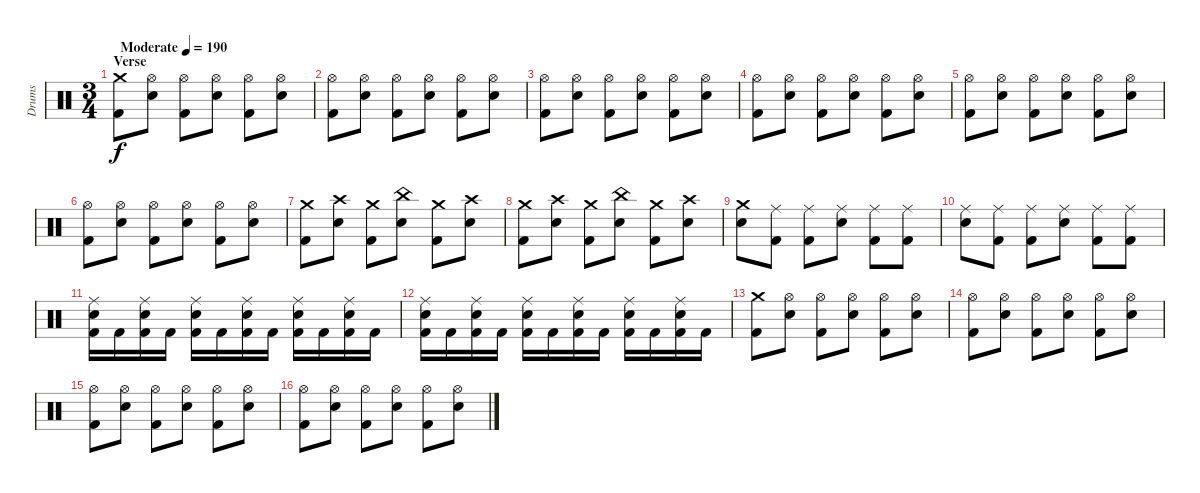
\track ("Drums" "Drums") {instrument percussion}
\staff {score}
\articulation defaults
\ts (3 4)
\section ("" "Verse")
\tempo (190 "Moderate")
\clef neutral
\ks c
("Crash medium (hit)" "Kick (hit) 2").8{dy f} ("Hi-Hat (open)" "Snare (hit) 2").8 ("Hi-Hat (open)" "Kick (hit) 2").8 ("Hi-Hat (open)" "Snare (hit) 2").8 ("Hi-Hat (open)" "Kick (hit) 2").8 ("Hi-Hat (open)" "Snare (hit) 2").8 |
("Hi-Hat (open)" "Kick (hit) 2").8 ("Hi-Hat (open)" "Snare (hit) 2").8 ("Hi-Hat (open)" "Kick (hit) 2").8 ("Hi-Hat (open)" "Snare (hit) 2").8 ("Hi-Hat (open)" "Kick (hit) 2").8 ("Hi-Hat (open)" "Snare (hit) 2").8 |
("Hi-Hat (open)" "Kick (hit) 2").8 ("Hi-Hat (open)" "Snare (hit) 2").8 ("Hi-Hat (open)" "Kick (hit) 2").8 ("Hi-Hat (open)" "Snare (hit) 2").8 ("Hi-Hat (open)" "Kick (hit) 2").8 ("Hi-Hat (open)" "Snare (hit) 2").8 |
("Hi-Hat (open)" "Kick (hit) 2").8 ("Hi-Hat (open)" "Snare (hit) 2").8 ("Hi-Hat (open)" "Kick (hit) 2").8 ("Hi-Hat (open)" "Snare (hit) 2").8 ("Hi-Hat (open)" "Kick (hit) 2").8 ("Hi-Hat (open)" "Snare (hit) 2").8 |
("Hi-Hat (open)" "Kick (hit) 2").8 ("Hi-Hat (open)" "Snare (hit) 2").8 ("Hi-Hat (open)" "Kick (hit) 2").8 ("Hi-Hat (open)" "Snare (hit) 2").8 ("Hi-Hat (open)" "Kick (hit) 2").8 ("Hi-Hat (open)" "Snare (hit) 2").8 |
("Hi-Hat (open)" "Kick (hit) 2").8 ("Hi-Hat (open)" "Snare (hit) 2").8 ("Hi-Hat (open)" "Kick (hit) 2").8 ("Hi-Hat (open)" "Snare (hit) 2").8 ("Hi-Hat (open)" "Kick (hit) 2").8 ("Hi-Hat (open)" "Snare (hit) 2").8 |
("Crash medium (hit)" "Kick (hit) 2").8 ("Crash high (hit)" "Snare (hit) 2").8 ("Crash medium (hit)" "Kick (hit) 2").8 ("China (hit)" "Snare (hit) 2").8 ("Crash medium (hit)" "Kick (hit) 2").8 ("Crash high (hit)" "Snare (hit) 2").8 |
("Crash medium (hit)" "Kick (hit) 2").8 ("Crash high (hit)" "Snare (hit) 2").8 ("Crash medium (hit)" "Kick (hit) 2").8 ("China (hit)" "Snare (hit) 2").8 ("Crash medium (hit)" "Kick (hit) 2").8 ("Crash high (hit)" "Snare (hit) 2").8 |
("Crash medium (hit)" "Snare (hit) 2").8 ("Ride (middle)" "Kick (hit) 2").8 ("Ride (middle)" "Kick (hit) 2").8 ("Ride (middle)" "Snare (hit) 2").8 ("Ride (middle)" "Kick (hit) 2").8 ("Ride (middle)" "Kick (hit) 2").8 |
("Ride (middle)" "Snare (hit) 2").8 ("Ride (middle)" "Kick (hit) 2").8 ("Ride (middle)" "Kick (hit) 2").8 ("Ride (middle)" "Snare (hit) 2").8 ("Ride (middle)" "Kick (hit) 2").8 ("Ride (middle)" "Kick (hit) 2").8 |
("Ride (middle)" "Snare (hit) 2" "Kick (hit) 2").16 "Kick (hit) 2".16 ("Ride (middle)" "Snare (hit) 2" "Kick (hit) 2").16 "Kick (hit) 2".16 ("Ride (middle)" "Snare (hit) 2" "Kick (hit) 2").16 "Kick (hit) 2".16 ("Ride (middle)" "Snare (hit) 2" "Kick (hit) 2").16 "Kick (hit) 2".16 ("Ride (middle)" "Snare (hit) 2" "Kick (hit) 2").16 "Kick (hit) 2".16 ("Ride (middle)" "Snare (hit) 2" "Kick (hit) 2").16 "Kick (hit) 2".16 |
("Ride (middle)" "Snare (hit) 2" "Kick (hit) 2").16 "Kick (hit) 2".16 ("Ride (middle)" "Snare (hit) 2" "Kick (hit) 2").16 "Kick (hit) 2".16 ("Ride (middle)" "Snare (hit) 2" "Kick (hit) 2").16 "Kick (hit) 2".16 ("Ride (middle)" "Snare (hit) 2" "Kick (hit) 2").16 "Kick (hit) 2".16 ("Ride (middle)" "Snare (hit) 2" "Kick (hit) 2").16 "Kick (hit) 2".16 ("Ride (middle)" "Snare (hit) 2" "Kick (hit) 2").16 "Kick (hit) 2".16 |
("Crash medium (hit)" "Kick (hit) 2").8 ("Hi-Hat (open)" "Snare (hit) 2").8 ("Hi-Hat (open)" "Kick (hit) 2").8 ("Hi-Hat (open)" "Snare (hit) 2").8 ("Hi-Hat (open)" "Kick (hit) 2").8 ("Hi-Hat (open)" "Snare (hit) 2").8 |
("Hi-Hat (open)" "Kick (hit) 2").8 ("Hi-Hat (open)" "Snare (hit) 2").8 ("Hi-Hat (open)" "Kick (hit) 2").8 ("Hi-Hat (open)" "Snare (hit) 2").8 ("Hi-Hat (open)" "Kick (hit) 2").8 ("Hi-Hat (open)" "Snare (hit) 2").8 |
("Hi-Hat (open)" "Kick (hit) 2").8 ("Hi-Hat (open)" "Snare (hit) 2").8 ("Hi-Hat (open)" "Kick (hit) 2").8 ("Hi-Hat (open)" "Snare (hit) 2").8 ("Hi-Hat (open)" "Kick (hit) 2").8 ("Hi-Hat (open)" "Snare (hit) 2").8 |
("Hi-Hat (open)" "Kick (hit) 2").8 ("Hi-Hat (open)" "Snare (hit) 2").8 ("Hi-Hat (open)" "Kick (hit) 2").8 ("Hi-Hat (open)" "Snare (hit) 2").8 ("Hi-Hat (open)" "Kick (hit) 2").8 ("Hi-Hat (open)" "Snare (hit) 2").8
